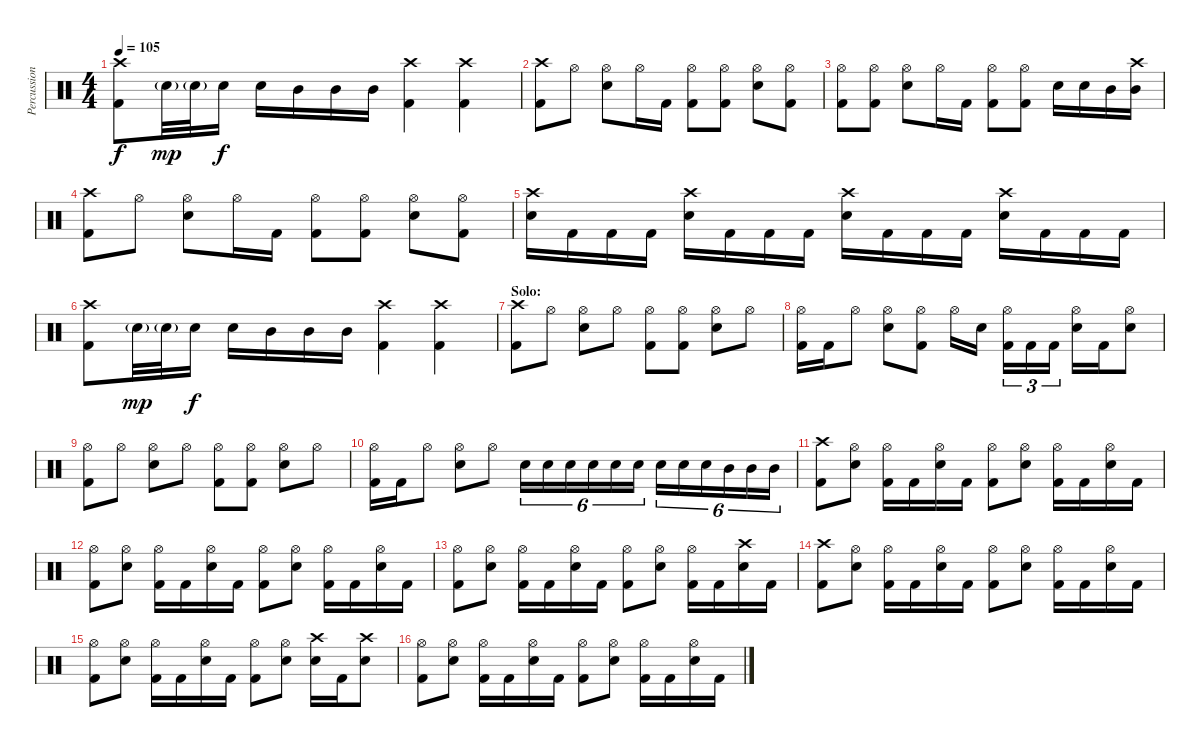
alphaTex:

\track ("Percussion" "Percussion") {instrument percussion}
\staff {score}
\articulation defaults
\ts (4 4)
\tempo 105
\clef neutral
\ks c
("Crash high (hit)" "Kick (hit) 2").8{dy f} "Snare (hit) 2"{g}.32{dy mp} "Snare (hit) 2"{g}.32 "Snare (hit) 2".16{dy f} "Snare (hit) 2".16 "Mid Tom (hit)".16 "Mid Tom (hit)".16 "Mid Tom (hit)".16 ("Crash high (hit)" "Kick (hit) 2").4 ("Crash high (hit)" "Kick (hit) 2").4 |
("Crash high (hit)" "Kick (hit) 2").8 "Hi-Hat (open)".8 ("Hi-Hat (open)" "Snare (hit) 2").8 "Hi-Hat (open)".16 "Kick (hit) 2".16 ("Hi-Hat (open)" "Kick (hit) 2").8 ("Hi-Hat (open)" "Kick (hit) 2").8 ("Hi-Hat (open)" "Snare (hit) 2").8 ("Hi-Hat (open)" "Kick (hit) 2").8 |
("Hi-Hat (open)" "Kick (hit) 2").8 ("Hi-Hat (open)" "Kick (hit) 2").8 ("Hi-Hat (open)" "Snare (hit) 2").8 "Hi-Hat (open)".16 "Kick (hit) 2".16 ("Hi-Hat (open)" "Kick (hit) 2").8 ("Hi-Hat (open)" "Kick (hit) 2").8 "Snare (hit) 2".16 "Snare (hit) 2".16 "Mid Tom (hit)".16 ("Crash high (hit)" "Mid Tom (hit)").16 |
("Crash high (hit)" "Kick (hit) 2").8 "Hi-Hat (open)".8 ("Hi-Hat (open)" "Snare (hit) 2").8 "Hi-Hat (open)".16 "Kick (hit) 2".16 ("Hi-Hat (open)" "Kick (hit) 2").8 ("Hi-Hat (open)" "Kick (hit) 2").8 ("Hi-Hat (open)" "Snare (hit) 2").8 ("Hi-Hat (open)" "Kick (hit) 2").8 |
("Crash high (hit)" "Snare (hit) 2").16 "Kick (hit) 2".16 "Kick (hit) 2".16 "Kick (hit) 2".16 ("Crash high (hit)" "Snare (hit) 2").16 "Kick (hit) 2".16 "Kick (hit) 2".16 "Kick (hit) 2".16 ("Crash high (hit)" "Snare (hit) 2").16 "Kick (hit) 2".16 "Kick (hit) 2".16 "Kick (hit) 2".16 ("Crash high (hit)" "Snare (hit) 2").16 "Kick (hit) 2".16 "Kick (hit) 2".16 "Kick (hit) 2".16 |
("Crash high (hit)" "Kick (hit) 2").8 "Snare (hit) 2"{g}.32{dy mp} "Snare (hit) 2"{g}.32 "Snare (hit) 2".16{dy f} "Snare (hit) 2".16 "Mid Tom (hit)".16 "Mid Tom (hit)".16 "Mid Tom (hit)".16 ("Crash high (hit)" "Kick (hit) 2").4 ("Crash high (hit)" "Kick (hit) 2").4 |
\section ("" "Solo:")
("Crash high (hit)" "Kick (hit) 2").8 "Hi-Hat (open)".8 ("Hi-Hat (open)" "Snare (hit) 2").8 "Hi-Hat (open)".8 ("Hi-Hat (open)" "Kick (hit) 2").8 ("Hi-Hat (open)" "Kick (hit) 2").8 ("Hi-Hat (open)" "Snare (hit) 2").8 "Hi-Hat (open)".8 |
("Hi-Hat (open)" "Kick (hit) 2").16 "Kick (hit) 2".16 "Hi-Hat (open)".8 ("Hi-Hat (open)" "Snare (hit) 2").8 ("Hi-Hat (open)" "Kick (hit) 2").8 "Hi-Hat (open)".16 "Snare (hit) 2".16 ("Hi-Hat (open)" "Kick (hit) 2").16{tu (3 2)} "Kick (hit) 2".16{tu (3 2)} "Kick (hit) 2".16{tu (3 2)} ("Hi-Hat (open)" "Snare (hit) 2").16 "Kick (hit) 2".16 ("Hi-Hat (open)" "Snare (hit) 2").8 |
("Hi-Hat (open)" "Kick (hit) 2").8 "Hi-Hat (open)".8 ("Hi-Hat (open)" "Snare (hit) 2").8 "Hi-Hat (open)".8 ("Hi-Hat (open)" "Kick (hit) 2").8 ("Hi-Hat (open)" "Kick (hit) 2").8 ("Hi-Hat (open)" "Snare (hit) 2").8 "Hi-Hat (open)".8 |
("Hi-Hat (open)" "Kick (hit) 2").16 "Kick (hit) 2".16 "Hi-Hat (open)".8 ("Hi-Hat (open)" "Snare (hit) 2").8 "Hi-Hat (open)".8 "Snare (hit) 2".16{tu (6 4)} "Snare (hit) 2".16{tu (6 4)} "Snare (hit) 2".16{tu (6 4)} "Snare (hit) 2".16{tu (6 4)} "Snare (hit) 2".16{tu (6 4)} "Snare (hit) 2".16{tu (6 4)} "Snare (hit) 2".16{tu (6 4)} "Snare (hit) 2".16{tu (6 4)} "Snare (hit) 2".16{tu (6 4)} "Mid Tom (hit)".16{tu (6 4)} "Mid Tom (hit)".16{tu (6 4)} "Mid Tom (hit)".16{tu (6 4)} |
("Crash high (hit)" "Kick (hit) 2").8 ("Hi-Hat (open)" "Snare (hit) 2").8 ("Hi-Hat (open)" "Kick (hit) 2").16 "Kick (hit) 2".16 ("Hi-Hat (open)" "Snare (hit) 2").16 "Kick (hit) 2".16 ("Hi-Hat (open)" "Kick (hit) 2").8 ("Hi-Hat (open)" "Snare (hit) 2").8 ("Hi-Hat (open)" "Kick (hit) 2").16 "Kick (hit) 2".16 ("Hi-Hat (open)" "Snare (hit) 2").16 "Kick (hit) 2".16 |
("Hi-Hat (open)" "Kick (hit) 2").8 ("Hi-Hat (open)" "Snare (hit) 2").8 ("Hi-Hat (open)" "Kick (hit) 2").16 "Kick (hit) 2".16 ("Hi-Hat (open)" "Snare (hit) 2").16 "Kick (hit) 2".16 ("Hi-Hat (open)" "Kick (hit) 2").8 ("Hi-Hat (open)" "Snare (hit) 2").8 ("Hi-Hat (open)" "Kick (hit) 2").16 "Kick (hit) 2".16 ("Hi-Hat (open)" "Snare (hit) 2").16 "Kick (hit) 2".16 |
("Hi-Hat (open)" "Kick (hit) 2").8 ("Hi-Hat (open)" "Snare (hit) 2").8 ("Hi-Hat (open)" "Kick (hit) 2").16 "Kick (hit) 2".16 ("Hi-Hat (open)" "Snare (hit) 2").16 "Kick (hit) 2".16 ("Hi-Hat (open)" "Kick (hit) 2").8 ("Hi-Hat (open)" "Snare (hit) 2").8 ("Hi-Hat (open)" "Kick (hit) 2").16 "Kick (hit) 2".16 ("Crash high (hit)" "Snare (hit) 2").16 "Kick (hit) 2".16 |
("Crash high (hit)" "Kick (hit) 2").8 ("Hi-Hat (open)" "Snare (hit) 2").8 ("Hi-Hat (open)" "Kick (hit) 2").16 "Kick (hit) 2".16 ("Hi-Hat (open)" "Snare (hit) 2").16 "Kick (hit) 2".16 ("Hi-Hat (open)" "Kick (hit) 2").8 ("Hi-Hat (open)" "Snare (hit) 2").8 ("Hi-Hat (open)" "Kick (hit) 2").16 "Kick (hit) 2".16 ("Hi-Hat (open)" "Snare (hit) 2").16 "Kick (hit) 2".16 |
("Hi-Hat (open)" "Kick (hit) 2").8 ("Hi-Hat (open)" "Snare (hit) 2").8 ("Hi-Hat (open)" "Kick (hit) 2").16 "Kick (hit) 2".16 ("Hi-Hat (open)" "Snare (hit) 2").16 "Kick (hit) 2".16 ("Hi-Hat (open)" "Kick (hit) 2").8 ("Hi-Hat (open)" "Snare (hit) 2").8 ("Crash high (hit)" "Snare (hit) 2").16 "Kick (hit) 2".16 ("Crash high (hit)" "Snare (hit) 2").8 |
("Hi-Hat (open)" "Kick (hit) 2").8 ("Hi-Hat (open)" "Snare (hit) 2").8 ("Hi-Hat (open)" "Kick (hit) 2").16 "Kick (hit) 2".16 ("Hi-Hat (open)" "Snare (hit) 2").16 "Kick (hit) 2".16 ("Hi-Hat (open)" "Kick (hit) 2").8 ("Hi-Hat (open)" "Snare (hit) 2").8 ("Hi-Hat (open)" "Kick (hit) 2").16 "Kick (hit) 2".16 ("Hi-Hat (open)" "Snare (hit) 2").16 "Kick (hit) 2".16
